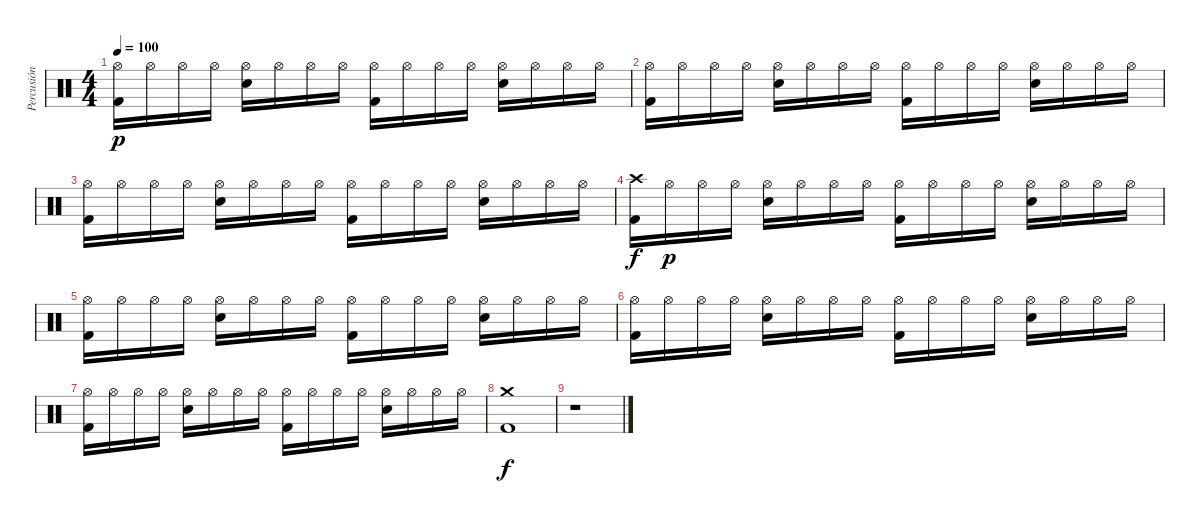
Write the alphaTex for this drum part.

\track ("Percusión" "Percusión") {instrument percussion}
\staff {score}
\articulation defaults
\ts (4 4)
\tempo 100
\clef neutral
\ks c
("Hi-Hat (open)" "Kick (hit) 2").16{dy p} "Hi-Hat (open)".16 "Hi-Hat (open)".16 "Hi-Hat (open)".16 ("Hi-Hat (open)" "Snare (hit) 2").16 "Hi-Hat (open)".16 "Hi-Hat (open)".16 "Hi-Hat (open)".16 ("Hi-Hat (open)" "Kick (hit) 2").16 "Hi-Hat (open)".16 "Hi-Hat (open)".16 "Hi-Hat (open)".16 ("Hi-Hat (open)" "Snare (hit) 2").16 "Hi-Hat (open)".16 "Hi-Hat (open)".16 "Hi-Hat (open)".16 |
("Hi-Hat (open)" "Kick (hit) 2").16 "Hi-Hat (open)".16 "Hi-Hat (open)".16 "Hi-Hat (open)".16 ("Hi-Hat (open)" "Snare (hit) 2").16 "Hi-Hat (open)".16 "Hi-Hat (open)".16 "Hi-Hat (open)".16 ("Hi-Hat (open)" "Kick (hit) 2").16 "Hi-Hat (open)".16 "Hi-Hat (open)".16 "Hi-Hat (open)".16 ("Hi-Hat (open)" "Snare (hit) 2").16 "Hi-Hat (open)".16 "Hi-Hat (open)".16 "Hi-Hat (open)".16 |
("Hi-Hat (open)" "Kick (hit) 2").16 "Hi-Hat (open)".16 "Hi-Hat (open)".16 "Hi-Hat (open)".16 ("Hi-Hat (open)" "Snare (hit) 2").16 "Hi-Hat (open)".16 "Hi-Hat (open)".16 "Hi-Hat (open)".16 ("Hi-Hat (open)" "Kick (hit) 2").16 "Hi-Hat (open)".16 "Hi-Hat (open)".16 "Hi-Hat (open)".16 ("Hi-Hat (open)" "Snare (hit) 2").16 "Hi-Hat (open)".16 "Hi-Hat (open)".16 "Hi-Hat (open)".16 |
("Crash high (hit)" "Kick (hit) 2").16{dy f} "Hi-Hat (open)".16{dy p} "Hi-Hat (open)".16 "Hi-Hat (open)".16 ("Hi-Hat (open)" "Snare (hit) 2").16 "Hi-Hat (open)".16 "Hi-Hat (open)".16 "Hi-Hat (open)".16 ("Hi-Hat (open)" "Kick (hit) 2").16 "Hi-Hat (open)".16 "Hi-Hat (open)".16 "Hi-Hat (open)".16 ("Hi-Hat (open)" "Snare (hit) 2").16 "Hi-Hat (open)".16 "Hi-Hat (open)".16 "Hi-Hat (open)".16 |
("Hi-Hat (open)" "Kick (hit) 2").16 "Hi-Hat (open)".16 "Hi-Hat (open)".16 "Hi-Hat (open)".16 ("Hi-Hat (open)" "Snare (hit) 2").16 "Hi-Hat (open)".16 "Hi-Hat (open)".16 "Hi-Hat (open)".16 ("Hi-Hat (open)" "Kick (hit) 2").16 "Hi-Hat (open)".16 "Hi-Hat (open)".16 "Hi-Hat (open)".16 ("Hi-Hat (open)" "Snare (hit) 2").16 "Hi-Hat (open)".16 "Hi-Hat (open)".16 "Hi-Hat (open)".16 |
("Hi-Hat (open)" "Kick (hit) 2").16 "Hi-Hat (open)".16 "Hi-Hat (open)".16 "Hi-Hat (open)".16 ("Hi-Hat (open)" "Snare (hit) 2").16 "Hi-Hat (open)".16 "Hi-Hat (open)".16 "Hi-Hat (open)".16 ("Hi-Hat (open)" "Kick (hit) 2").16 "Hi-Hat (open)".16 "Hi-Hat (open)".16 "Hi-Hat (open)".16 ("Hi-Hat (open)" "Snare (hit) 2").16 "Hi-Hat (open)".16 "Hi-Hat (open)".16 "Hi-Hat (open)".16 |
("Hi-Hat (open)" "Kick (hit) 2").16 "Hi-Hat (open)".16 "Hi-Hat (open)".16 "Hi-Hat (open)".16 ("Hi-Hat (open)" "Snare (hit) 2").16 "Hi-Hat (open)".16 "Hi-Hat (open)".16 "Hi-Hat (open)".16 ("Hi-Hat (open)" "Kick (hit) 2").16 "Hi-Hat (open)".16 "Hi-Hat (open)".16 "Hi-Hat (open)".16 ("Hi-Hat (open)" "Snare (hit) 2").16 "Hi-Hat (open)".16 "Hi-Hat (open)".16 "Hi-Hat (open)".16 |
("Crash medium (hit)" "Kick (hit) 2").1{dy f} |
r.1
